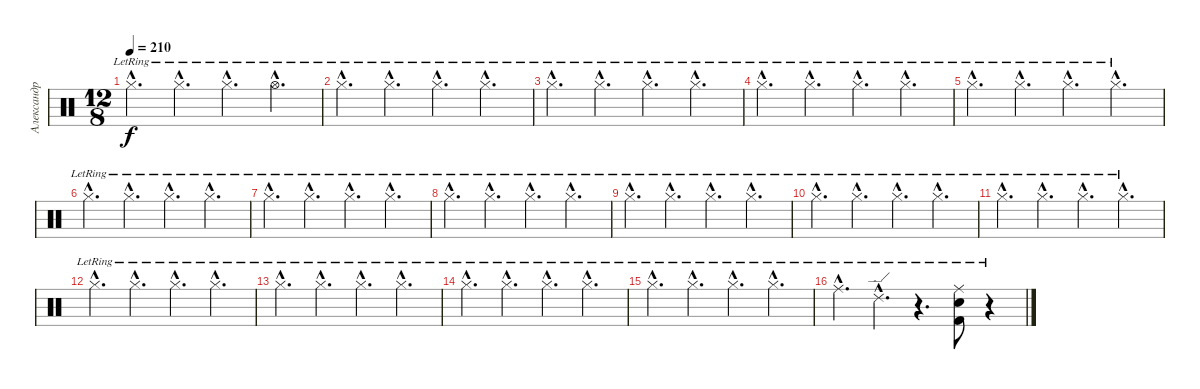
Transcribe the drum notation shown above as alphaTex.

\track ("Александр Манякин" "Александр ") {instrument percussion}
\staff {score}
\articulation defaults
\ts (12 8)
\tempo 210
\tempo 101
\tempo 210
\clef neutral
\ks c "Hi-Hat (closed)"{hac lr}.4{d dy f} "Hi-Hat (closed)"{hac lr}.4{d} "Hi-Hat (closed)"{hac lr}.4{d} "Hi-Hat (open)"{hac lr}.4{d}
|
"Hi-Hat (closed)"{hac lr}.4{d} "Hi-Hat (closed)"{hac lr}.4{d} "Hi-Hat (closed)"{hac lr}.4{d} "Hi-Hat (closed)"{hac lr}.4{d} |
"Hi-Hat (closed)"{hac lr}.4{d} "Hi-Hat (closed)"{hac lr}.4{d} "Hi-Hat (closed)"{hac lr}.4{d} "Hi-Hat (closed)"{hac lr}.4{d} |
"Hi-Hat (closed)"{hac lr}.4{d} "Hi-Hat (closed)"{hac lr}.4{d} "Hi-Hat (closed)"{hac lr}.4{d} "Hi-Hat (closed)"{hac lr}.4{d} |
"Hi-Hat (closed)"{hac lr}.4{d} "Hi-Hat (closed)"{hac lr}.4{d} "Hi-Hat (closed)"{hac lr}.4{d} "Hi-Hat (closed)"{hac lr}.4{d} |
"Hi-Hat (closed)"{hac lr}.4{d} "Hi-Hat (closed)"{hac lr}.4{d} "Hi-Hat (closed)"{hac lr}.4{d} "Hi-Hat (closed)"{hac lr}.4{d} |
"Hi-Hat (closed)"{hac lr}.4{d} "Hi-Hat (closed)"{hac lr}.4{d} "Hi-Hat (closed)"{hac lr}.4{d} "Hi-Hat (closed)"{hac lr}.4{d} |
"Hi-Hat (closed)"{hac lr}.4{d} "Hi-Hat (closed)"{hac lr}.4{d} "Hi-Hat (closed)"{hac lr}.4{d} "Hi-Hat (closed)"{hac lr}.4{d} |
"Hi-Hat (closed)"{hac lr}.4{d} "Hi-Hat (closed)"{hac lr}.4{d} "Hi-Hat (closed)"{hac lr}.4{d} "Hi-Hat (closed)"{hac lr}.4{d} |
"Hi-Hat (closed)"{hac lr}.4{d} "Hi-Hat (closed)"{hac lr}.4{d} "Hi-Hat (closed)"{hac lr}.4{d} "Hi-Hat (closed)"{hac lr}.4{d} |
"Hi-Hat (closed)"{hac lr}.4{d} "Hi-Hat (closed)"{hac lr}.4{d} "Hi-Hat (closed)"{hac lr}.4{d} "Hi-Hat (closed)"{hac lr}.4{d} |
"Hi-Hat (closed)"{hac lr}.4{d} "Hi-Hat (closed)"{hac lr}.4{d} "Hi-Hat (closed)"{hac lr}.4{d} "Hi-Hat (closed)"{hac lr}.4{d} |
"Hi-Hat (closed)"{hac lr}.4{d} "Hi-Hat (closed)"{hac lr}.4{d} "Hi-Hat (closed)"{hac lr}.4{d} "Hi-Hat (closed)"{hac lr}.4{d} |
"Hi-Hat (closed)"{hac lr}.4{d} "Hi-Hat (closed)"{hac lr}.4{d} "Hi-Hat (closed)"{hac lr}.4{d} "Hi-Hat (closed)"{hac lr}.4{d} |
"Hi-Hat (closed)"{hac lr}.4{d} "Hi-Hat (closed)"{hac lr}.4{d} "Hi-Hat (closed)"{hac lr}.4{d} "Hi-Hat (closed)"{hac lr}.4{d} |
"Ride (middle)"{hac lr}.4{d} "Ride (edge) 2"{hac lr}.4{d} r.4{d} ("Ride (middle)"{lr} "Snare (hit) 2"{lr} "Kick (hit) 2"{lr}).8 r.4
